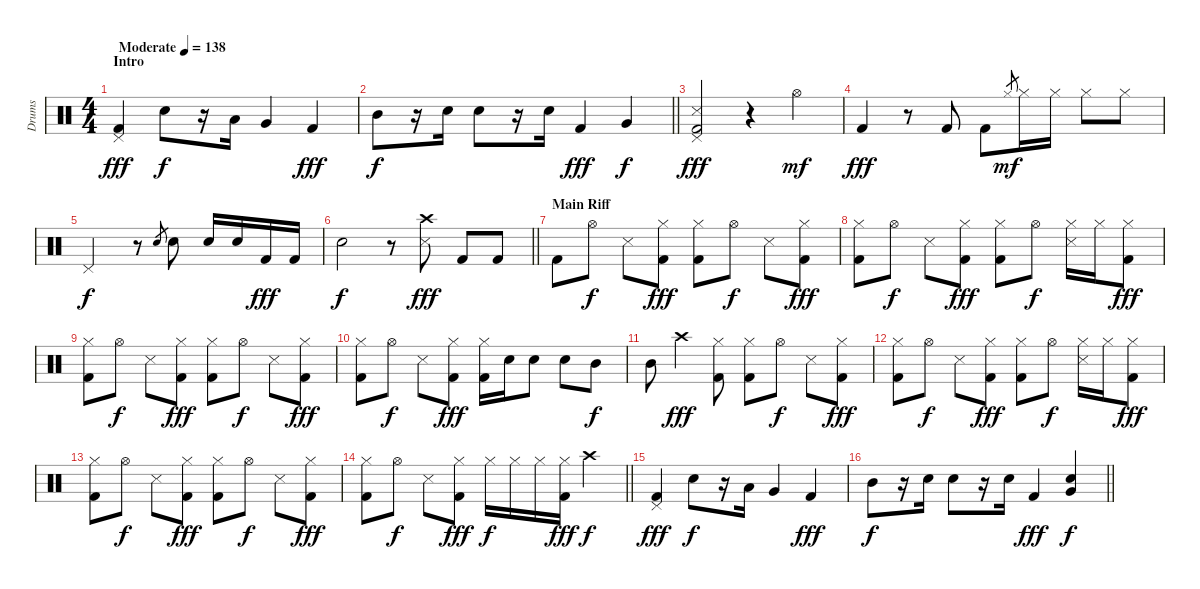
\track ("Drums" "Drums") {instrument percussion}
\staff {score}
\articulation defaults
\ts (4 4)
\section ("" "Intro")
\tempo (138 "Moderate")
\clef neutral
\ks c
("Pedal Hi-Hat (hit)" "Kick (hit) 2").4{dy fff} "Electric Snare (hit)".8{dy f} r.16 "Low Tom (hit)".16 "Very Low Tom (hit)".4 "Kick (hit) 2".4{dy fff} |
\barLineRight lightlight "Mid Tom (hit)".8{dy f}
r.16 "Electric Snare (hit)".16 "Electric Snare (hit)".8 r.16 "Electric Snare (hit)".16 "Kick (hit) 2".4{dy fff} "Very Low Tom (hit)".4{dy f} |
("Pedal Hi-Hat (hit)" "Metronome (hit)" "Kick (hit) 2").2{dy fff} r.4 "Hi-Hat (open)".4{dy mf} |
"Kick (hit) 2".4{dy fff} r.8 "Kick (hit) 2".8 "Kick (hit) 2".8 "Hi-Hat (closed)".8{gr dy mf} "Hi-Hat (closed)".16 "Hi-Hat (closed)".16 "Hi-Hat (closed)".8 "Hi-Hat (closed)".8 |
"Pedal Hi-Hat (hit)".2{dy f} r.8 "Electric Snare (hit)".8{gr} "Electric Snare (hit)".8 "Electric Snare (hit)".16 "Electric Snare (hit)".16 "Kick (hit) 2".16{dy fff} "Kick (hit) 2".16 |
\barLineRight lightlight "Electric Snare (hit)".2{dy f}
r.8 ("Crash high (hit)" "Metronome (hit)").8{dy fff} "Kick (hit) 2".8 "Kick (hit) 2".8 |
\section ("" "Main Riff")
"Kick (hit) 2".8 "Hi-Hat (open)".8{dy f} "Metronome (hit)".8 ("Hi-Hat (closed)" "Kick (hit) 2").8{dy fff} ("Hi-Hat (closed)" "Kick (hit) 2").8 "Hi-Hat (open)".8{dy f} "Metronome (hit)".8 ("Hi-Hat (closed)" "Kick (hit) 2").8{dy fff} |
("Hi-Hat (closed)" "Kick (hit) 2").8 "Hi-Hat (open)".8{dy f} "Metronome (hit)".8 ("Hi-Hat (closed)" "Kick (hit) 2").8{dy fff} ("Hi-Hat (closed)" "Kick (hit) 2").8 "Hi-Hat (open)".8{dy f} ("Hi-Hat (closed)" "Metronome (hit)").16 "Hi-Hat (closed)".16 ("Hi-Hat (closed)" "Kick (hit) 2").8{dy fff} |
("Hi-Hat (closed)" "Kick (hit) 2").8 "Hi-Hat (open)".8{dy f} "Metronome (hit)".8 ("Hi-Hat (closed)" "Kick (hit) 2").8{dy fff} ("Hi-Hat (closed)" "Kick (hit) 2").8 "Hi-Hat (open)".8{dy f} "Metronome (hit)".8 ("Hi-Hat (closed)" "Kick (hit) 2").8{dy fff} |
("Hi-Hat (closed)" "Kick (hit) 2").8 "Hi-Hat (open)".8{dy f} "Metronome (hit)".8 ("Hi-Hat (closed)" "Kick (hit) 2").8{dy fff} ("Hi-Hat (closed)" "Kick (hit) 2").16 "Electric Snare (hit)".16 "Electric Snare (hit)".8 "Electric Snare (hit)".8 "Mid Tom (hit)".8{dy f} |
"Mid Tom (hit)".8 "Crash high (hit)".4{dy fff} ("Hi-Hat (closed)" "Kick (hit) 2").8 ("Hi-Hat (closed)" "Kick (hit) 2").8 "Hi-Hat (open)".8{dy f} "Metronome (hit)".8 ("Hi-Hat (closed)" "Kick (hit) 2").8{dy fff} |
("Hi-Hat (closed)" "Kick (hit) 2").8 "Hi-Hat (open)".8{dy f} "Metronome (hit)".8 ("Hi-Hat (closed)" "Kick (hit) 2").8{dy fff} ("Hi-Hat (closed)" "Kick (hit) 2").8 "Hi-Hat (open)".8{dy f} ("Hi-Hat (closed)" "Metronome (hit)").16 "Hi-Hat (closed)".16 ("Hi-Hat (closed)" "Kick (hit) 2").8{dy fff} |
("Hi-Hat (closed)" "Kick (hit) 2").8 "Hi-Hat (open)".8{dy f} "Metronome (hit)".8 ("Hi-Hat (closed)" "Kick (hit) 2").8{dy fff} ("Hi-Hat (closed)" "Kick (hit) 2").8 "Hi-Hat (open)".8{dy f} "Metronome (hit)".8 ("Hi-Hat (closed)" "Kick (hit) 2").8{dy fff} |
\barLineRight lightlight
("Hi-Hat (closed)" "Kick (hit) 2").8 "Hi-Hat (open)".8{dy f} "Metronome (hit)".8 ("Hi-Hat (closed)" "Kick (hit) 2").8{dy fff} "Hi-Hat (closed)".16{dy f} "Hi-Hat (closed)".16 "Hi-Hat (closed)".16 ("Hi-Hat (closed)" "Kick (hit) 2").16{dy fff} "Crash high (hit)".4{dy f} |
("Pedal Hi-Hat (hit)" "Kick (hit) 2").4{dy fff} "Electric Snare (hit)".8{dy f} r.16 "Low Tom (hit)".16 "Very Low Tom (hit)".4 "Kick (hit) 2".4{dy fff} |
\barLineRight lightlight "Mid Tom (hit)".8{dy f}
r.16 "Electric Snare (hit)".16 "Electric Snare (hit)".8 r.16 "Electric Snare (hit)".16 "Kick (hit) 2".4{dy fff} ("Electric Snare (hit)" "Very Low Tom (hit)").4{dy f}
